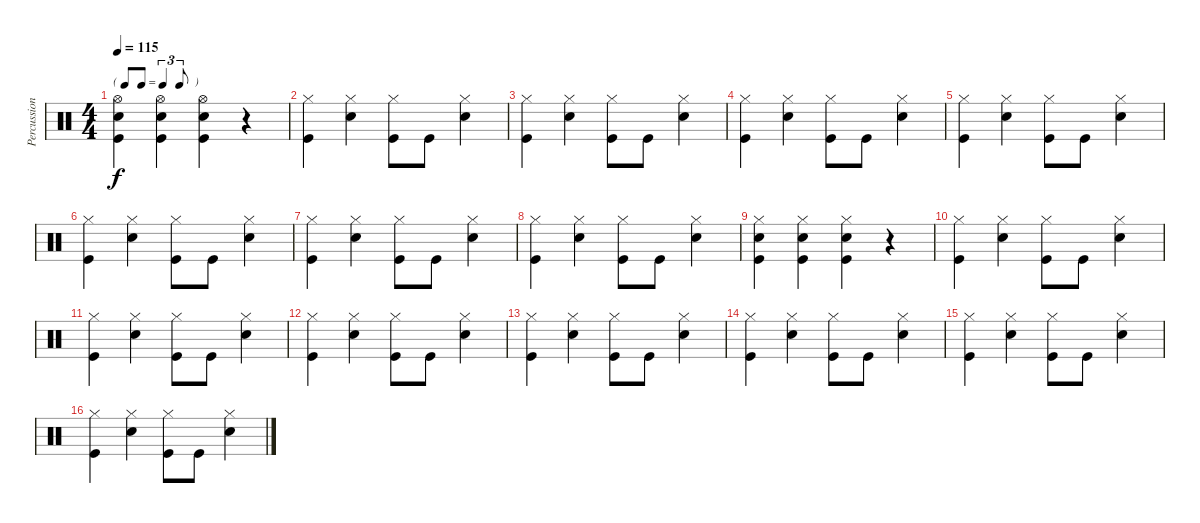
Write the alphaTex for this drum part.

\track ("Percussion" "Percussion") {instrument percussion}
\staff {score}
\articulation defaults
\ts (4 4)
\tf triplet8th
\tempo 115
\clef neutral
\ks c
("Hi-Hat (open)" "Snare (hit) 2" "Kick (hit)").4{dy f} ("Hi-Hat (open)" "Snare (hit) 2" "Kick (hit)").4 ("Hi-Hat (open)" "Snare (hit) 2" "Kick (hit)").4 r.4 |
("Hi-Hat (closed)" "Kick (hit)").4 ("Hi-Hat (closed)" "Snare (hit) 2").4 ("Hi-Hat (closed)" "Kick (hit)").8 "Kick (hit)".8 ("Hi-Hat (closed)" "Snare (hit) 2").4 |
("Hi-Hat (closed)" "Kick (hit)").4 ("Hi-Hat (closed)" "Snare (hit) 2").4 ("Hi-Hat (closed)" "Kick (hit)").8 "Kick (hit)".8 ("Hi-Hat (closed)" "Snare (hit) 2").4 |
("Hi-Hat (closed)" "Kick (hit)").4 ("Hi-Hat (closed)" "Snare (hit) 2").4 ("Hi-Hat (closed)" "Kick (hit)").8 "Kick (hit)".8 ("Hi-Hat (closed)" "Snare (hit) 2").4 |
("Hi-Hat (closed)" "Kick (hit)").4 ("Hi-Hat (closed)" "Snare (hit) 2").4 ("Hi-Hat (closed)" "Kick (hit)").8 "Kick (hit)".8 ("Hi-Hat (closed)" "Snare (hit) 2").4 |
("Hi-Hat (closed)" "Kick (hit)").4 ("Hi-Hat (closed)" "Snare (hit) 2").4 ("Hi-Hat (closed)" "Kick (hit)").8 "Kick (hit)".8 ("Hi-Hat (closed)" "Snare (hit) 2").4 |
("Hi-Hat (closed)" "Kick (hit)").4 ("Hi-Hat (closed)" "Snare (hit) 2").4 ("Hi-Hat (closed)" "Kick (hit)").8 "Kick (hit)".8 ("Hi-Hat (closed)" "Snare (hit) 2").4 |
("Hi-Hat (closed)" "Kick (hit)").4 ("Hi-Hat (closed)" "Snare (hit) 2").4 ("Hi-Hat (closed)" "Kick (hit)").8 "Kick (hit)".8 ("Hi-Hat (closed)" "Snare (hit) 2").4 |
("Hi-Hat (closed)" "Snare (hit) 2" "Kick (hit)").4 ("Hi-Hat (closed)" "Snare (hit) 2" "Kick (hit)").4 ("Hi-Hat (closed)" "Snare (hit) 2" "Kick (hit)").4 r.4 |
("Hi-Hat (closed)" "Kick (hit)").4 ("Hi-Hat (closed)" "Snare (hit) 2").4 ("Hi-Hat (closed)" "Kick (hit)").8 "Kick (hit)".8 ("Hi-Hat (closed)" "Snare (hit) 2").4 |
("Hi-Hat (closed)" "Kick (hit)").4 ("Hi-Hat (closed)" "Snare (hit) 2").4 ("Hi-Hat (closed)" "Kick (hit)").8 "Kick (hit)".8 ("Hi-Hat (closed)" "Snare (hit) 2").4 |
("Hi-Hat (closed)" "Kick (hit)").4 ("Hi-Hat (closed)" "Snare (hit) 2").4 ("Hi-Hat (closed)" "Kick (hit)").8 "Kick (hit)".8 ("Hi-Hat (closed)" "Snare (hit) 2").4 |
("Hi-Hat (closed)" "Kick (hit)").4 ("Hi-Hat (closed)" "Snare (hit) 2").4 ("Hi-Hat (closed)" "Kick (hit)").8 "Kick (hit)".8 ("Hi-Hat (closed)" "Snare (hit) 2").4 |
("Hi-Hat (closed)" "Kick (hit)").4 ("Hi-Hat (closed)" "Snare (hit) 2").4 ("Hi-Hat (closed)" "Kick (hit)").8 "Kick (hit)".8 ("Hi-Hat (closed)" "Snare (hit) 2").4 |
("Hi-Hat (closed)" "Kick (hit)").4 ("Hi-Hat (closed)" "Snare (hit) 2").4 ("Hi-Hat (closed)" "Kick (hit)").8 "Kick (hit)".8 ("Hi-Hat (closed)" "Snare (hit) 2").4 |
("Hi-Hat (closed)" "Kick (hit)").4 ("Hi-Hat (closed)" "Snare (hit) 2").4 ("Hi-Hat (closed)" "Kick (hit)").8 "Kick (hit)".8 ("Hi-Hat (closed)" "Snare (hit) 2").4
